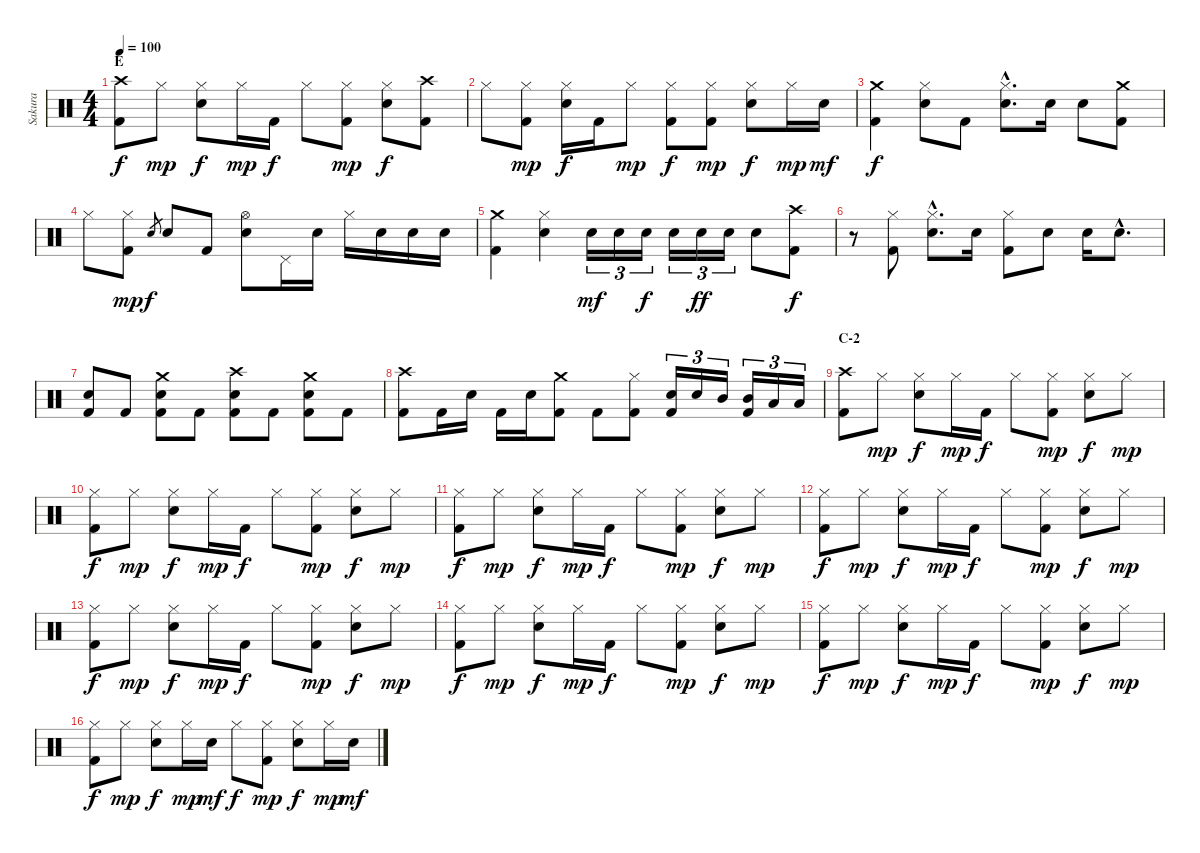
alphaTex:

\track ("Sakura" "Sakura") {instrument percussion}
\staff {score}
\articulation defaults
\ts (4 4)
\section ("" "E")
\tempo 100
\clef neutral
\ks c
("Crash high (hit)" "Kick (hit) 2").8{dy f} "Hi-Hat (closed)".8{dy mp} ("Hi-Hat (closed)" "Electric Snare (hit)").8{dy f} "Hi-Hat (closed)".16{dy mp} "Kick (hit) 2".16{dy f} "Hi-Hat (closed)".8 ("Hi-Hat (closed)" "Kick (hit) 2").8{dy mp} ("Hi-Hat (closed)" "Electric Snare (hit)").8{dy f} ("Crash high (hit)" "Kick (hit) 2").8 |
"Hi-Hat (closed)".8 ("Hi-Hat (closed)" "Kick (hit) 2").8{dy mp} ("Hi-Hat (closed)" "Electric Snare (hit)").16{dy f} "Kick (hit) 2".16 "Hi-Hat (closed)".8{dy mp} ("Hi-Hat (closed)" "Kick (hit) 2").8{dy f} ("Hi-Hat (closed)" "Kick (hit) 2").8{dy mp} ("Hi-Hat (closed)" "Electric Snare (hit)").8{dy f} "Hi-Hat (closed)".16{dy mp} "Electric Snare (hit)".16{dy mf} |
("Crash medium (hit)" "Kick (hit) 2").4{dy f} ("Hi-Hat (closed)" "Electric Snare (hit)").8 "Kick (hit) 2".8 ("Hi-Hat (closed)"{hac} "Electric Snare (hit)"{hac}).8{d} "Electric Snare (hit)".16 "Electric Snare (hit)".8 ("Crash medium (hit)" "Kick (hit) 2").8 |
"Hi-Hat (closed)".8 ("Hi-Hat (closed)" "Kick (hit) 2").8{dy mp} "Electric Snare (hit)".8{gr dy f} "Electric Snare (hit)".8 "Kick (hit) 2".8 ("Hi-Hat (open)" "Electric Snare (hit)").8 "Pedal Hi-Hat (hit)".16 "Electric Snare (hit)".16 "Hi-Hat (closed)".16 "Electric Snare (hit)".16 "Electric Snare (hit)".16 "Electric Snare (hit)".16 |
("Crash medium (hit)" "Kick (hit) 2").4 ("Hi-Hat (closed)" "Electric Snare (hit)").4 "Electric Snare (hit)".16{tu (3 2) dy mf} "Electric Snare (hit)".16{tu (3 2)} "Electric Snare (hit)".16{tu (3 2) dy f} "Electric Snare (hit)".16{tu (3 2)} "Electric Snare (hit)".16{tu (3 2) dy ff} "Electric Snare (hit)".16{tu (3 2)} "Electric Snare (hit)".8 ("Crash high (hit)" "Kick (hit) 2").8{dy f} |
r.8 ("Hi-Hat (closed)" "Kick (hit) 2").8 ("Hi-Hat (closed)"{hac} "Electric Snare (hit)"{hac}).8{d} "Electric Snare (hit)".16 ("Hi-Hat (closed)" "Kick (hit) 2").8 "Electric Snare (hit)".8 "Electric Snare (hit)".16 "Electric Snare (hit)"{hac}.8{d} |
("Electric Snare (hit)" "Kick (hit) 2").8 "Kick (hit) 2".8 ("Crash medium (hit)" "Electric Snare (hit)" "Kick (hit) 2").8 "Kick (hit) 2".8 ("Crash high (hit)" "Electric Snare (hit)" "Kick (hit) 2").8 "Kick (hit) 2".8 ("Crash medium (hit)" "Electric Snare (hit)" "Kick (hit) 2").8 "Kick (hit) 2".8 |
("Crash high (hit)" "Kick (hit) 2").8 "Kick (hit) 2".16 "Electric Snare (hit)".16 "Kick (hit) 2".16 "Electric Snare (hit)".16 ("Crash medium (hit)" "Kick (hit) 2").8 "Kick (hit) 2".8 ("Hi-Hat (closed)" "Kick (hit) 2").8 ("Electric Snare (hit)" "Kick (hit) 2").16{tu (3 2)} "Electric Snare (hit)".16{tu (3 2)} "Mid Tom (hit)".16{tu (3 2)} ("Mid Tom (hit)" "Kick (hit) 2").16{tu (3 2)} "Low Tom (hit)".16{tu (3 2)} "Low Tom (hit)".16{tu (3 2)} |
\section ("" "C-2")
("Crash high (hit)" "Kick (hit) 2").8 "Hi-Hat (closed)".8{dy mp} ("Hi-Hat (closed)" "Electric Snare (hit)").8{dy f} "Hi-Hat (closed)".16{dy mp} "Kick (hit) 2".16{dy f} "Hi-Hat (closed)".8 ("Hi-Hat (closed)" "Kick (hit) 2").8{dy mp} ("Hi-Hat (closed)" "Electric Snare (hit)").8{dy f} "Hi-Hat (closed)".8{dy mp} |
("Hi-Hat (closed)" "Kick (hit) 2").8{dy f} "Hi-Hat (closed)".8{dy mp} ("Hi-Hat (closed)" "Electric Snare (hit)").8{dy f} "Hi-Hat (closed)".16{dy mp} "Kick (hit) 2".16{dy f} "Hi-Hat (closed)".8 ("Hi-Hat (closed)" "Kick (hit) 2").8{dy mp} ("Hi-Hat (closed)" "Electric Snare (hit)").8{dy f} "Hi-Hat (closed)".8{dy mp} |
("Hi-Hat (closed)" "Kick (hit) 2").8{dy f} "Hi-Hat (closed)".8{dy mp} ("Hi-Hat (closed)" "Electric Snare (hit)").8{dy f} "Hi-Hat (closed)".16{dy mp} "Kick (hit) 2".16{dy f} "Hi-Hat (closed)".8 ("Hi-Hat (closed)" "Kick (hit) 2").8{dy mp} ("Hi-Hat (closed)" "Electric Snare (hit)").8{dy f} "Hi-Hat (closed)".8{dy mp} |
("Hi-Hat (closed)" "Kick (hit) 2").8{dy f} "Hi-Hat (closed)".8{dy mp} ("Hi-Hat (closed)" "Electric Snare (hit)").8{dy f} "Hi-Hat (closed)".16{dy mp} "Kick (hit) 2".16{dy f} "Hi-Hat (closed)".8 ("Hi-Hat (closed)" "Kick (hit) 2").8{dy mp} ("Hi-Hat (closed)" "Electric Snare (hit)").8{dy f} "Hi-Hat (closed)".8{dy mp} |
("Hi-Hat (closed)" "Kick (hit) 2").8{dy f} "Hi-Hat (closed)".8{dy mp} ("Hi-Hat (closed)" "Electric Snare (hit)").8{dy f} "Hi-Hat (closed)".16{dy mp} "Kick (hit) 2".16{dy f} "Hi-Hat (closed)".8 ("Hi-Hat (closed)" "Kick (hit) 2").8{dy mp} ("Hi-Hat (closed)" "Electric Snare (hit)").8{dy f} "Hi-Hat (closed)".8{dy mp} |
("Hi-Hat (closed)" "Kick (hit) 2").8{dy f} "Hi-Hat (closed)".8{dy mp} ("Hi-Hat (closed)" "Electric Snare (hit)").8{dy f} "Hi-Hat (closed)".16{dy mp} "Kick (hit) 2".16{dy f} "Hi-Hat (closed)".8 ("Hi-Hat (closed)" "Kick (hit) 2").8{dy mp} ("Hi-Hat (closed)" "Electric Snare (hit)").8{dy f} "Hi-Hat (closed)".8{dy mp} |
("Hi-Hat (closed)" "Kick (hit) 2").8{dy f} "Hi-Hat (closed)".8{dy mp} ("Hi-Hat (closed)" "Electric Snare (hit)").8{dy f} "Hi-Hat (closed)".16{dy mp} "Kick (hit) 2".16{dy f} "Hi-Hat (closed)".8 ("Hi-Hat (closed)" "Kick (hit) 2").8{dy mp} ("Hi-Hat (closed)" "Electric Snare (hit)").8{dy f} "Hi-Hat (closed)".8{dy mp} |
("Hi-Hat (closed)" "Kick (hit) 2").8{dy f} "Hi-Hat (closed)".8{dy mp} ("Hi-Hat (closed)" "Electric Snare (hit)").8{dy f} "Hi-Hat (closed)".16{dy mp} "Electric Snare (hit)".16{dy mf} "Hi-Hat (closed)".8{dy f} ("Hi-Hat (closed)" "Kick (hit) 2").8{dy mp} ("Hi-Hat (closed)" "Electric Snare (hit)").8{dy f} "Hi-Hat (closed)".16{dy mp} "Electric Snare (hit)".16{dy mf}
